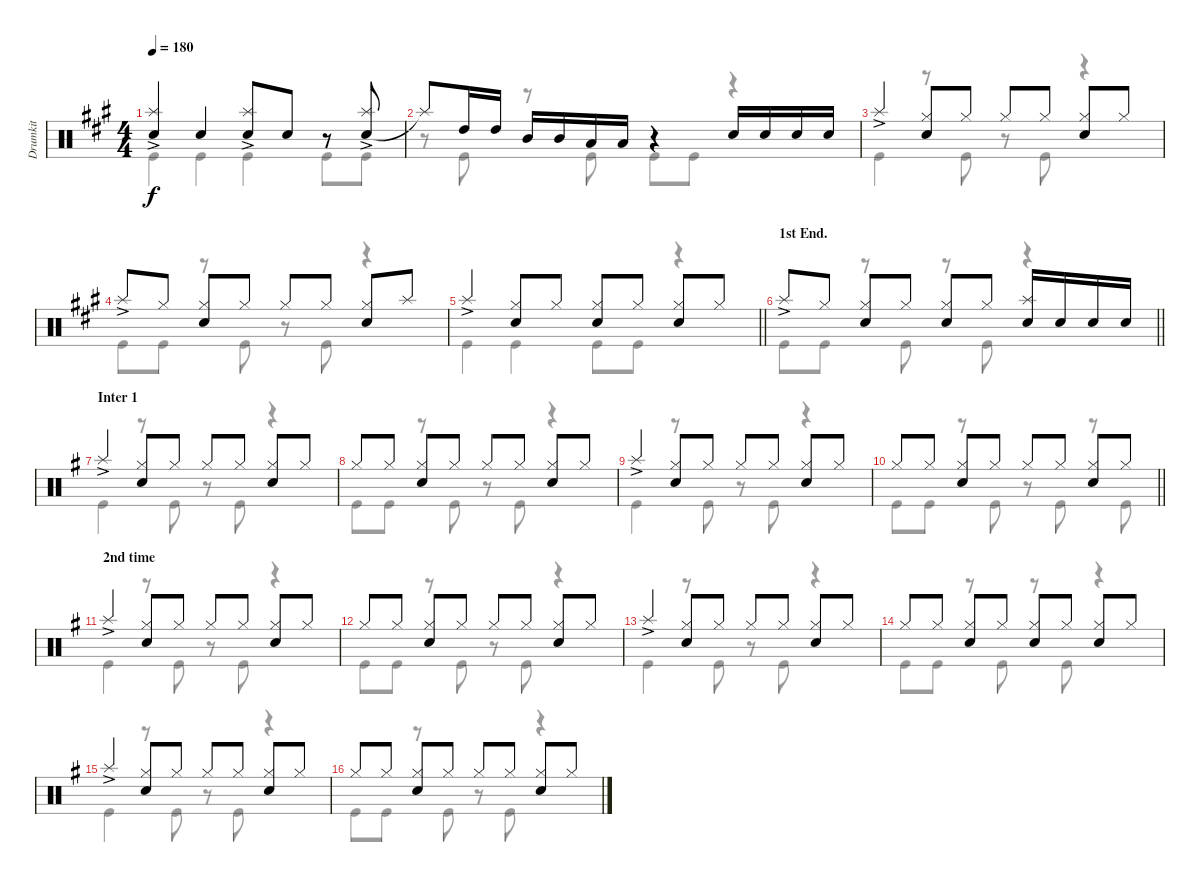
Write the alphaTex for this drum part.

\track ("Drumkit" "Drumkit") {instrument percussion}
\staff {score}
\articulation defaults
\voice
\ts (4 4)
\tempo 180
\clef neutral
\ks a
("Snare (hit) 2" "Splash (hit)"{ac}).4{dy f} "Snare (hit) 2".4 ("Snare (hit) 2" "Splash (hit)"{ac}).8 "Snare (hit) 2".8 r.8 ("Snare (hit) 2" "Splash (hit)"{ac}).8 |
"Splash (hit)"{t}.8 "High Tom (hit)".16 "High Tom (hit)".16 "Mid Tom (hit)".16 "Mid Tom (hit)".16 "Low Tom (hit)".16 "Low Tom (hit)".16 r.4 "Snare (hit) 2".16 "Snare (hit) 2".16 "Snare (hit) 2".16 "Snare (hit) 2".16 |
"Splash (hit)"{ac}.4 ("Hi-Hat (closed)" "Snare (hit) 2").8 "Hi-Hat (closed)".8 "Hi-Hat (closed)".8 "Hi-Hat (closed)".8 ("Hi-Hat (closed)" "Snare (hit) 2").8 "Hi-Hat (closed)".8 |
"Splash (hit)"{ac}.8 "Hi-Hat (closed)".8 ("Hi-Hat (closed)" "Snare (hit) 2").8 "Hi-Hat (closed)".8 "Hi-Hat (closed)".8 "Hi-Hat (closed)".8 ("Hi-Hat (closed)" "Snare (hit) 2").8 "Splash (hit)".8 |
\barLineRight lightlight "Splash (hit)"{ac}.4
("Hi-Hat (closed)" "Snare (hit) 2").8 "Hi-Hat (closed)".8 ("Hi-Hat (closed)" "Snare (hit) 2").8 "Hi-Hat (closed)".8 ("Hi-Hat (closed)" "Snare (hit) 2").8 "Hi-Hat (closed)".8 |
\section ("" "1st End.")
\barLineRight lightlight "Splash (hit)"{ac}.8 "Hi-Hat (closed)".8
("Hi-Hat (closed)" "Snare (hit) 2").8 "Hi-Hat (closed)".8 ("Hi-Hat (closed)" "Snare (hit) 2").8 "Hi-Hat (closed)".8 ("Snare (hit) 2" "Splash (hit)").16 "Snare (hit) 2".16 "Snare (hit) 2".16 "Snare (hit) 2".16 |
\section ("" "Inter 1")
\ks g "Splash (hit)"{ac}.4
("Snare (hit) 2" "Hi-Hat (closed)").8 "Hi-Hat (closed)".8 "Hi-Hat (closed)".8 "Hi-Hat (closed)".8 ("Hi-Hat (closed)" "Snare (hit) 2").8 "Hi-Hat (closed)".8 |
"Hi-Hat (closed)".8 "Hi-Hat (closed)".8 ("Hi-Hat (closed)" "Snare (hit) 2").8 "Hi-Hat (closed)".8 "Hi-Hat (closed)".8 "Hi-Hat (closed)".8 ("Hi-Hat (closed)" "Snare (hit) 2").8 "Hi-Hat (closed)".8 |
"Splash (hit)"{ac}.4 ("Snare (hit) 2" "Hi-Hat (closed)").8 "Hi-Hat (closed)".8 "Hi-Hat (closed)".8 "Hi-Hat (closed)".8 ("Hi-Hat (closed)" "Snare (hit) 2").8 "Hi-Hat (closed)".8 |
\barLineRight lightlight "Hi-Hat (closed)".8 "Hi-Hat (closed)".8
("Hi-Hat (closed)" "Snare (hit) 2").8 "Hi-Hat (closed)".8 "Hi-Hat (closed)".8 "Hi-Hat (closed)".8 ("Hi-Hat (closed)" "Snare (hit) 2").8 "Hi-Hat (closed)".8 |
\section ("" "2nd time")
"Splash (hit)"{ac}.4 ("Snare (hit) 2" "Hi-Hat (closed)").8 "Hi-Hat (closed)".8 "Hi-Hat (closed)".8 "Hi-Hat (closed)".8 ("Hi-Hat (closed)" "Snare (hit) 2").8 "Hi-Hat (closed)".8 |
"Hi-Hat (closed)".8 "Hi-Hat (closed)".8 ("Hi-Hat (closed)" "Snare (hit) 2").8 "Hi-Hat (closed)".8 "Hi-Hat (closed)".8 "Hi-Hat (closed)".8 ("Hi-Hat (closed)" "Snare (hit) 2").8 "Hi-Hat (closed)".8 |
"Splash (hit)"{ac}.4 ("Snare (hit) 2" "Hi-Hat (closed)").8 "Hi-Hat (closed)".8 "Hi-Hat (closed)".8 "Hi-Hat (closed)".8 ("Hi-Hat (closed)" "Snare (hit) 2").8 "Hi-Hat (closed)".8 |
"Hi-Hat (closed)".8 "Hi-Hat (closed)".8 ("Hi-Hat (closed)" "Snare (hit) 2").8 "Hi-Hat (closed)".8 ("Hi-Hat (closed)" "Snare (hit) 2").8 "Hi-Hat (closed)".8 ("Hi-Hat (closed)" "Snare (hit) 2").8 "Hi-Hat (closed)".8 |
"Splash (hit)"{ac}.4 ("Snare (hit) 2" "Hi-Hat (closed)").8 "Hi-Hat (closed)".8 "Hi-Hat (closed)".8 "Hi-Hat (closed)".8 ("Hi-Hat (closed)" "Snare (hit) 2").8 "Hi-Hat (closed)".8 |
"Hi-Hat (closed)".8 "Hi-Hat (closed)".8 ("Hi-Hat (closed)" "Snare (hit) 2").8 "Hi-Hat (closed)".8 "Hi-Hat (closed)".8 "Hi-Hat (closed)".8 ("Hi-Hat (closed)" "Snare (hit) 2").8 "Hi-Hat (closed)".8
\voice
\clef neutral
\ottava regular
\simile none
\ks a "Kick (hit)".4{dy f} "Kick (hit)".4 "Kick (hit)".4 "Kick (hit)".8 "Kick (hit)".8
|
r.8 "Kick (hit)".8 r.8 "Kick (hit)".8 "Kick (hit)".8 "Kick (hit)".8 r.4 |
"Kick (hit)".4 r.8 "Kick (hit)".8 r.8 "Kick (hit)".8 r.4 |
"Kick (hit)".8 "Kick (hit)".8 r.8 "Kick (hit)".8 r.8 "Kick (hit)".8 r.4 |
\barLineRight lightlight "Kick (hit)".4 "Kick (hit)".4 "Kick (hit)".8 "Kick (hit)".8
r.4 |
\barLineRight lightlight "Kick (hit)".8 "Kick (hit)".8
r.8 "Kick (hit)".8 r.8 "Kick (hit)".8 r.4 |
\ks g "Kick (hit)".4
r.8 "Kick (hit)".8 r.8 "Kick (hit)".8 r.4 |
"Kick (hit)".8 "Kick (hit)".8 r.8 "Kick (hit)".8 r.8 "Kick (hit)".8 r.4 |
"Kick (hit)".4 r.8 "Kick (hit)".8 r.8 "Kick (hit)".8 r.4 |
\barLineRight lightlight "Kick (hit)".8 "Kick (hit)".8
r.8 "Kick (hit)".8 r.8 "Kick (hit)".8 r.8 "Kick (hit)".8 |
"Kick (hit)".4 r.8 "Kick (hit)".8 r.8 "Kick (hit)".8 r.4 |
"Kick (hit)".8 "Kick (hit)".8 r.8 "Kick (hit)".8 r.8 "Kick (hit)".8 r.4 |
"Kick (hit)".4 r.8 "Kick (hit)".8 r.8 "Kick (hit)".8 r.4 |
"Kick (hit)".8 "Kick (hit)".8 r.8 "Kick (hit)".8 r.8 "Kick (hit)".8 r.4 |
"Kick (hit)".4 r.8 "Kick (hit)".8 r.8 "Kick (hit)".8 r.4 |
"Kick (hit)".8 "Kick (hit)".8 r.8 "Kick (hit)".8 r.8 "Kick (hit)".8 r.4
